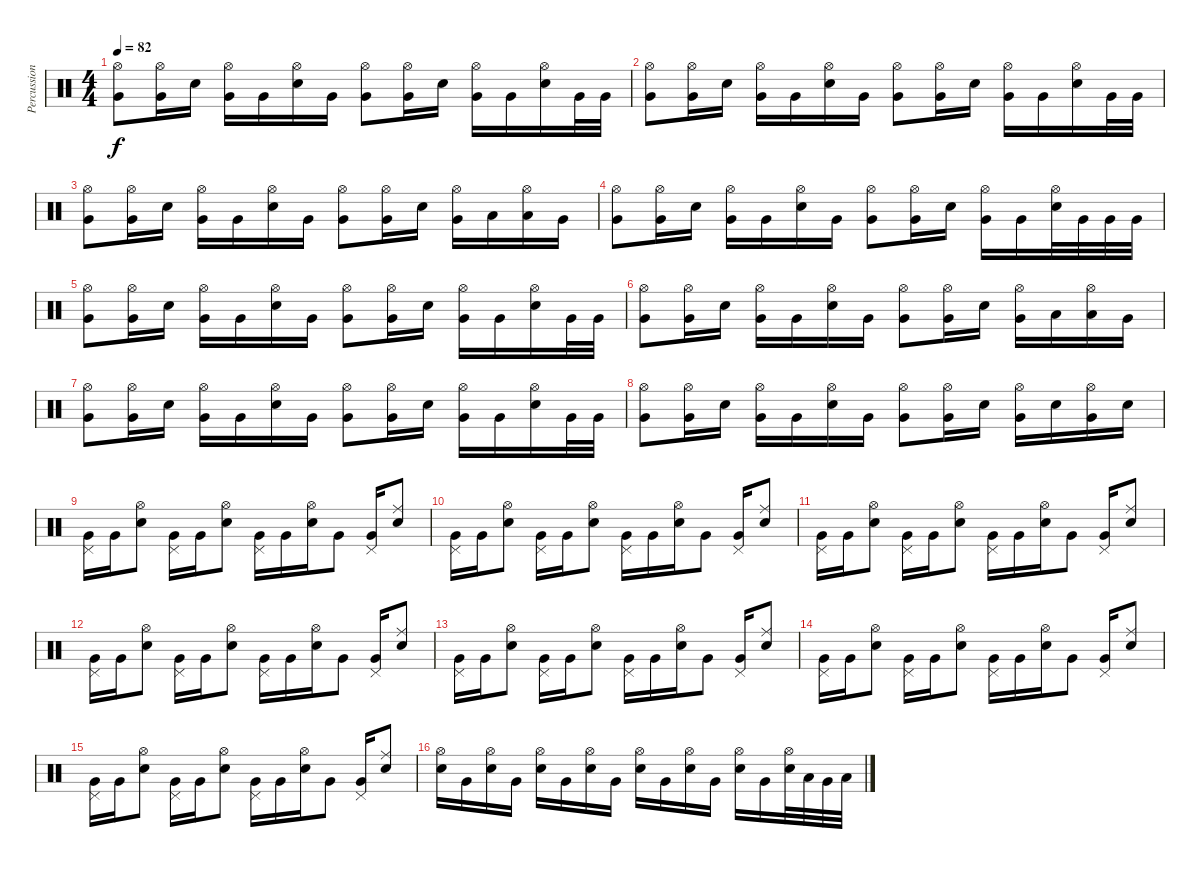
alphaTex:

\track ("Percussion" "Percussion") {instrument percussion}
\staff {score}
\articulation defaults
\ts (4 4)
\tempo 82
\clef neutral
\ks c
("Hi-Hat (open)" "Very Low Tom (hit)").8{dy f} ("Hi-Hat (open)" "Very Low Tom (hit)").16 "Snare (hit) 2".16 ("Hi-Hat (open)" "Very Low Tom (hit)").16 "Very Low Tom (hit)".16 ("Hi-Hat (open)" "Snare (hit) 2").16 "Very Low Tom (hit)".16 ("Hi-Hat (open)" "Very Low Tom (hit)").8 ("Hi-Hat (open)" "Very Low Tom (hit)").16 "Snare (hit) 2".16 ("Hi-Hat (open)" "Very Low Tom (hit)").16 "Very Low Tom (hit)".16 ("Hi-Hat (open)" "Snare (hit) 2").16 "Very Low Tom (hit)".32 "Very Low Tom (hit)".32 |
("Hi-Hat (open)" "Very Low Tom (hit)").8 ("Hi-Hat (open)" "Very Low Tom (hit)").16 "Snare (hit) 2".16 ("Hi-Hat (open)" "Very Low Tom (hit)").16 "Very Low Tom (hit)".16 ("Hi-Hat (open)" "Snare (hit) 2").16 "Very Low Tom (hit)".16 ("Hi-Hat (open)" "Very Low Tom (hit)").8 ("Hi-Hat (open)" "Very Low Tom (hit)").16 "Snare (hit) 2".16 ("Hi-Hat (open)" "Very Low Tom (hit)").16 "Very Low Tom (hit)".16 ("Hi-Hat (open)" "Snare (hit) 2").16 "Very Low Tom (hit)".32 "Very Low Tom (hit)".32 |
("Hi-Hat (open)" "Very Low Tom (hit)").8 ("Hi-Hat (open)" "Very Low Tom (hit)").16 "Snare (hit) 2".16 ("Hi-Hat (open)" "Very Low Tom (hit)").16 "Very Low Tom (hit)".16 ("Hi-Hat (open)" "Snare (hit) 2").16 "Very Low Tom (hit)".16 ("Hi-Hat (open)" "Very Low Tom (hit)").8 ("Hi-Hat (open)" "Very Low Tom (hit)").16 "Snare (hit) 2".16 ("Hi-Hat (open)" "Very Low Tom (hit)").16 "Low Tom (hit)".16 ("Hi-Hat (open)" "Low Tom (hit)").16 "Very Low Tom (hit)".16 |
("Hi-Hat (open)" "Very Low Tom (hit)").8 ("Hi-Hat (open)" "Very Low Tom (hit)").16 "Snare (hit) 2".16 ("Hi-Hat (open)" "Very Low Tom (hit)").16 "Very Low Tom (hit)".16 ("Hi-Hat (open)" "Snare (hit) 2").16 "Very Low Tom (hit)".16 ("Hi-Hat (open)" "Very Low Tom (hit)").8 ("Hi-Hat (open)" "Very Low Tom (hit)").16 "Snare (hit) 2".16 ("Hi-Hat (open)" "Very Low Tom (hit)").16 "Very Low Tom (hit)".16 ("Hi-Hat (open)" "Snare (hit) 2").32 "Very Low Tom (hit)".32 "Very Low Tom (hit)".32 "Very Low Tom (hit)".32 |
("Hi-Hat (open)" "Very Low Tom (hit)").8 ("Hi-Hat (open)" "Very Low Tom (hit)").16 "Snare (hit) 2".16 ("Hi-Hat (open)" "Very Low Tom (hit)").16 "Very Low Tom (hit)".16 ("Hi-Hat (open)" "Snare (hit) 2").16 "Very Low Tom (hit)".16 ("Hi-Hat (open)" "Very Low Tom (hit)").8 ("Hi-Hat (open)" "Very Low Tom (hit)").16 "Snare (hit) 2".16 ("Hi-Hat (open)" "Very Low Tom (hit)").16 "Very Low Tom (hit)".16 ("Hi-Hat (open)" "Snare (hit) 2").16 "Very Low Tom (hit)".32 "Very Low Tom (hit)".32 |
("Hi-Hat (open)" "Very Low Tom (hit)").8 ("Hi-Hat (open)" "Very Low Tom (hit)").16 "Snare (hit) 2".16 ("Hi-Hat (open)" "Very Low Tom (hit)").16 "Very Low Tom (hit)".16 ("Hi-Hat (open)" "Snare (hit) 2").16 "Very Low Tom (hit)".16 ("Hi-Hat (open)" "Very Low Tom (hit)").8 ("Hi-Hat (open)" "Very Low Tom (hit)").16 "Snare (hit) 2".16 ("Hi-Hat (open)" "Very Low Tom (hit)").16 "Low Tom (hit)".16 ("Hi-Hat (open)" "Low Tom (hit)").16 "Very Low Tom (hit)".16 |
("Hi-Hat (open)" "Very Low Tom (hit)").8 ("Hi-Hat (open)" "Very Low Tom (hit)").16 "Snare (hit) 2".16 ("Hi-Hat (open)" "Very Low Tom (hit)").16 "Very Low Tom (hit)".16 ("Hi-Hat (open)" "Snare (hit) 2").16 "Very Low Tom (hit)".16 ("Hi-Hat (open)" "Very Low Tom (hit)").8 ("Hi-Hat (open)" "Very Low Tom (hit)").16 "Snare (hit) 2".16 ("Hi-Hat (open)" "Very Low Tom (hit)").16 "Very Low Tom (hit)".16 ("Hi-Hat (open)" "Snare (hit) 2").16 "Very Low Tom (hit)".32 "Very Low Tom (hit)".32 |
("Hi-Hat (open)" "Very Low Tom (hit)").8 ("Hi-Hat (open)" "Very Low Tom (hit)").16 "Snare (hit) 2".16 ("Hi-Hat (open)" "Very Low Tom (hit)").16 "Very Low Tom (hit)".16 ("Hi-Hat (open)" "Snare (hit) 2").16 "Very Low Tom (hit)".16 ("Hi-Hat (open)" "Very Low Tom (hit)").8 ("Hi-Hat (open)" "Very Low Tom (hit)").16 "Snare (hit) 2".16 ("Hi-Hat (open)" "Very Low Tom (hit)").16 "Snare (hit) 2".16 ("Hi-Hat (open)" "Very Low Tom (hit)").16 "Snare (hit) 2".16 |
("Pedal Hi-Hat (hit)" "Very Low Tom (hit)").16 "Very Low Tom (hit)".16 ("Hi-Hat (open)" "Snare (hit) 2").8 ("Pedal Hi-Hat (hit)" "Very Low Tom (hit)").16 "Very Low Tom (hit)".16 ("Hi-Hat (open)" "Snare (hit) 2").8 ("Pedal Hi-Hat (hit)" "Very Low Tom (hit)").16 "Very Low Tom (hit)".16 ("Hi-Hat (open)" "Snare (hit) 2").16 "Very Low Tom (hit)".8 ("Pedal Hi-Hat (hit)" "Very Low Tom (hit)").16 ("Ride (middle)" "Snare (hit) 2").8 |
("Pedal Hi-Hat (hit)" "Very Low Tom (hit)").16 "Very Low Tom (hit)".16 ("Hi-Hat (open)" "Snare (hit) 2").8 ("Pedal Hi-Hat (hit)" "Very Low Tom (hit)").16 "Very Low Tom (hit)".16 ("Hi-Hat (open)" "Snare (hit) 2").8 ("Pedal Hi-Hat (hit)" "Very Low Tom (hit)").16 "Very Low Tom (hit)".16 ("Hi-Hat (open)" "Snare (hit) 2").16 "Very Low Tom (hit)".8 ("Pedal Hi-Hat (hit)" "Very Low Tom (hit)").16 ("Ride (middle)" "Snare (hit) 2").8 |
("Pedal Hi-Hat (hit)" "Very Low Tom (hit)").16 "Very Low Tom (hit)".16 ("Hi-Hat (open)" "Snare (hit) 2").8 ("Pedal Hi-Hat (hit)" "Very Low Tom (hit)").16 "Very Low Tom (hit)".16 ("Hi-Hat (open)" "Snare (hit) 2").8 ("Pedal Hi-Hat (hit)" "Very Low Tom (hit)").16 "Very Low Tom (hit)".16 ("Hi-Hat (open)" "Snare (hit) 2").16 "Very Low Tom (hit)".8 ("Pedal Hi-Hat (hit)" "Very Low Tom (hit)").16 ("Ride (middle)" "Snare (hit) 2").8 |
("Pedal Hi-Hat (hit)" "Very Low Tom (hit)").16 "Very Low Tom (hit)".16 ("Hi-Hat (open)" "Snare (hit) 2").8 ("Pedal Hi-Hat (hit)" "Very Low Tom (hit)").16 "Very Low Tom (hit)".16 ("Hi-Hat (open)" "Snare (hit) 2").8 ("Pedal Hi-Hat (hit)" "Very Low Tom (hit)").16 "Very Low Tom (hit)".16 ("Hi-Hat (open)" "Snare (hit) 2").16 "Very Low Tom (hit)".8 ("Pedal Hi-Hat (hit)" "Very Low Tom (hit)").16 ("Ride (middle)" "Snare (hit) 2").8 |
("Pedal Hi-Hat (hit)" "Very Low Tom (hit)").16 "Very Low Tom (hit)".16 ("Hi-Hat (open)" "Snare (hit) 2").8 ("Pedal Hi-Hat (hit)" "Very Low Tom (hit)").16 "Very Low Tom (hit)".16 ("Hi-Hat (open)" "Snare (hit) 2").8 ("Pedal Hi-Hat (hit)" "Very Low Tom (hit)").16 "Very Low Tom (hit)".16 ("Hi-Hat (open)" "Snare (hit) 2").16 "Very Low Tom (hit)".8 ("Pedal Hi-Hat (hit)" "Very Low Tom (hit)").16 ("Ride (middle)" "Snare (hit) 2").8 |
("Pedal Hi-Hat (hit)" "Very Low Tom (hit)").16 "Very Low Tom (hit)".16 ("Hi-Hat (open)" "Snare (hit) 2").8 ("Pedal Hi-Hat (hit)" "Very Low Tom (hit)").16 "Very Low Tom (hit)".16 ("Hi-Hat (open)" "Snare (hit) 2").8 ("Pedal Hi-Hat (hit)" "Very Low Tom (hit)").16 "Very Low Tom (hit)".16 ("Hi-Hat (open)" "Snare (hit) 2").16 "Very Low Tom (hit)".8 ("Pedal Hi-Hat (hit)" "Very Low Tom (hit)").16 ("Ride (middle)" "Snare (hit) 2").8 |
("Pedal Hi-Hat (hit)" "Very Low Tom (hit)").16 "Very Low Tom (hit)".16 ("Hi-Hat (open)" "Snare (hit) 2").8 ("Pedal Hi-Hat (hit)" "Very Low Tom (hit)").16 "Very Low Tom (hit)".16 ("Hi-Hat (open)" "Snare (hit) 2").8 ("Pedal Hi-Hat (hit)" "Very Low Tom (hit)").16 "Very Low Tom (hit)".16 ("Hi-Hat (open)" "Snare (hit) 2").16 "Very Low Tom (hit)".8 ("Pedal Hi-Hat (hit)" "Very Low Tom (hit)").16 ("Ride (middle)" "Snare (hit) 2").8 |
("Hi-Hat (open)" "Snare (hit) 2").16 "Very Low Tom (hit)".16 ("Hi-Hat (open)" "Snare (hit) 2").16 "Very Low Tom (hit)".16 ("Hi-Hat (open)" "Snare (hit) 2").16 "Very Low Tom (hit)".16 ("Hi-Hat (open)" "Snare (hit) 2").16 "Very Low Tom (hit)".16 ("Hi-Hat (open)" "Snare (hit) 2").16 "Very Low Tom (hit)".16 ("Hi-Hat (open)" "Snare (hit) 2").16 "Very Low Tom (hit)".16 ("Hi-Hat (open)" "Snare (hit) 2").16 "Very Low Tom (hit)".16 ("Hi-Hat (open)" "Snare (hit) 2").32 "Low Tom (hit)".32 "Very Low Tom (hit)".32 "Low Floor Tom (hit)".32
